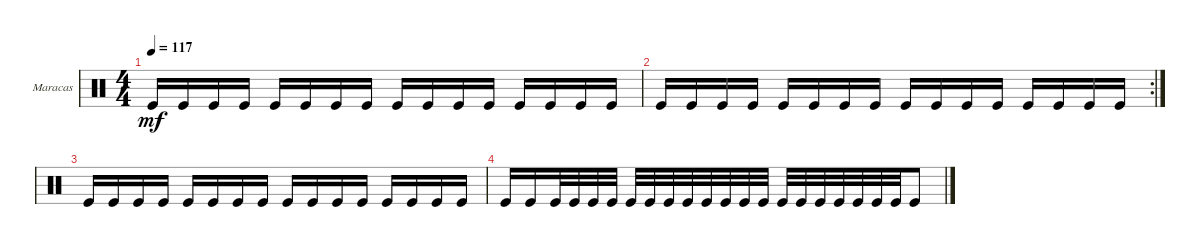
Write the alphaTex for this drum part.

\defaultSystemsLayout 4
\bracketExtendMode groupsimilarinstruments
\firstSystemTrackNameOrientation horizontal
\otherSystemsTrackNameOrientation horizontal
\track ("Maracas" "Maracas") {instrument percussion}
\staff {score}
\articulation defaults
\ts (4 4)
\tempo 117
\clef neutral
\ks c "Kick (hit)".16{dy mf} "Kick (hit)".16 "Kick (hit)".16 "Kick (hit)".16 "Kick (hit)".16 "Kick (hit)".16 "Kick (hit)".16 "Kick (hit)".16 "Kick (hit)".16 "Kick (hit)".16 "Kick (hit)".16 "Kick (hit)".16 "Kick (hit)".16 "Kick (hit)".16 "Kick (hit)".16 "Kick (hit)".16
|
\rc 2 "Kick (hit)".16 "Kick (hit)".16 "Kick (hit)".16 "Kick (hit)".16 "Kick (hit)".16 "Kick (hit)".16 "Kick (hit)".16 "Kick (hit)".16 "Kick (hit)".16 "Kick (hit)".16 "Kick (hit)".16 "Kick (hit)".16 "Kick (hit)".16 "Kick (hit)".16 "Kick (hit)".16 "Kick (hit)".16
|
"Kick (hit)".16 "Kick (hit)".16 "Kick (hit)".16 "Kick (hit)".16 "Kick (hit)".16 "Kick (hit)".16 "Kick (hit)".16 "Kick (hit)".16 "Kick (hit)".16 "Kick (hit)".16 "Kick (hit)".16 "Kick (hit)".16 "Kick (hit)".16 "Kick (hit)".16 "Kick (hit)".16 "Kick (hit)".16 |
"Kick (hit)".16 "Kick (hit)".16 "Kick (hit)".32 "Kick (hit)".32 "Kick (hit)".32 "Kick (hit)".32 "Kick (hit)".32 "Kick (hit)".32 "Kick (hit)".32 "Kick (hit)".32 "Kick (hit)".32 "Kick (hit)".32 "Kick (hit)".32 "Kick (hit)".32 "Kick (hit)".32 "Kick (hit)".32 "Kick (hit)".32 "Kick (hit)".32 "Kick (hit)".32 "Kick (hit)".32 "Kick (hit)".32 "Kick (hit)".8
